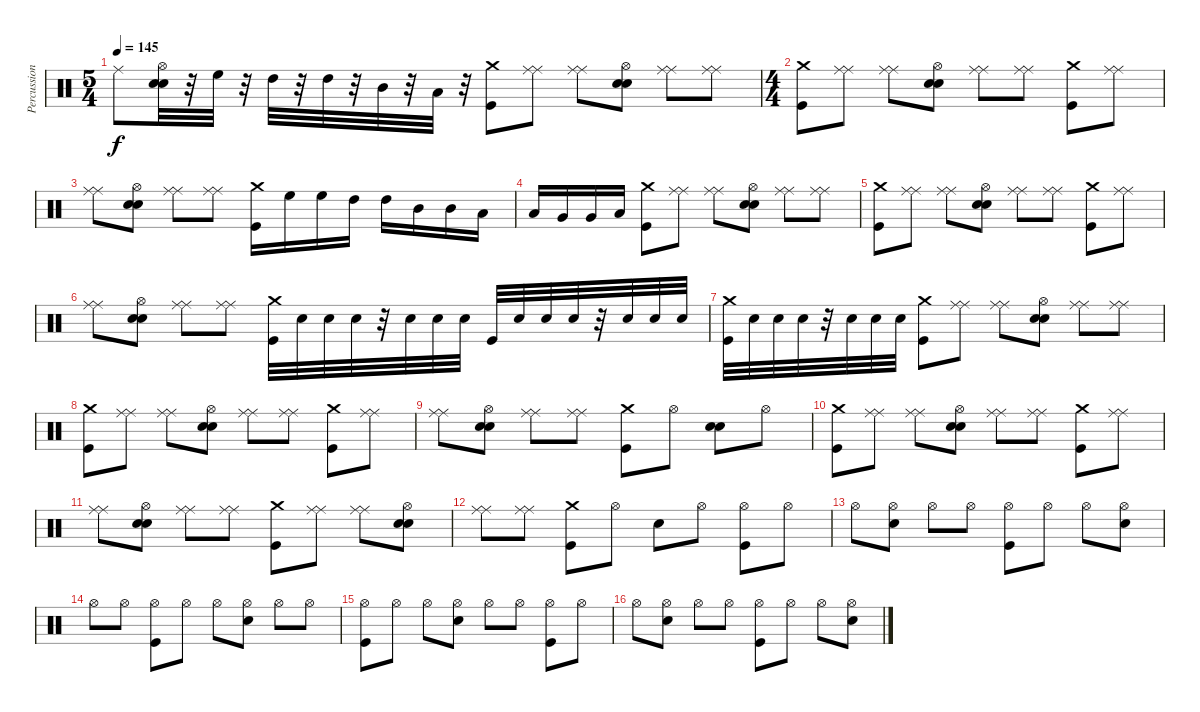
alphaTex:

\track ("Percussions" "Percussion") {instrument percussion}
\staff {score}
\articulation defaults
\ts (5 4)
\tempo 145
\clef neutral
\ks c "Ride (middle)".8{dy f}
("Hi-Hat (open)" "Electric Snare (hit)" "Electric Snare (hit)").32 r.32{volume 11} "High Floor Tom (hit)".32 r.32 "High Tom (hit)".32 r.32 "High Tom (hit)".32 r.32 "Mid Tom (hit)".32 r.32 "Low Tom (hit)".32 r.32 ("Crash medium (hit)" "Kick (hit)").8{volume 16} ("Ride (middle)" "Ride (middle)").8 ("Ride (middle)" "Ride (middle)").8 ("Hi-Hat (open)" "Electric Snare (hit)" "Electric Snare (hit)").8 ("Ride (middle)" "Ride (middle)").8 ("Ride (middle)" "Ride (middle)").8 |
\ts (4 4)
("Crash medium (hit)" "Kick (hit)").8 ("Ride (middle)" "Ride (middle)").8 ("Ride (middle)" "Ride (middle)").8 ("Hi-Hat (open)" "Electric Snare (hit)" "Electric Snare (hit)").8 ("Ride (middle)" "Ride (middle)").8 ("Ride (middle)" "Ride (middle)").8 ("Crash medium (hit)" "Kick (hit)").8 ("Ride (middle)" "Ride (middle)").8 |
("Ride (middle)" "Ride (middle)").8 ("Electric Snare (hit)" "Electric Snare (hit)" "Hi-Hat (open)").8 ("Ride (middle)" "Ride (middle)").8 ("Ride (middle)" "Ride (middle)").8 ("Crash medium (hit)" "Kick (hit)").16 "High Floor Tom (hit)".16{volume 11} "High Floor Tom (hit)".16 "High Tom (hit)".16 "High Tom (hit)".16 "Mid Tom (hit)".16 "Mid Tom (hit)".16 "Low Tom (hit)".16 |
"Low Tom (hit)".16 "Very Low Tom (hit)".16 "Very Low Tom (hit)".16 "Low Floor Tom (hit)".16 ("Crash medium (hit)" "Kick (hit)").8{volume 16} ("Ride (middle)" "Ride (middle)").8 ("Ride (middle)" "Ride (middle)").8 ("Hi-Hat (open)" "Electric Snare (hit)" "Electric Snare (hit)").8 ("Ride (middle)" "Ride (middle)").8 ("Ride (middle)" "Ride (middle)").8 |
("Crash medium (hit)" "Kick (hit)").8 ("Ride (middle)" "Ride (middle)").8 ("Ride (middle)" "Ride (middle)").8 ("Hi-Hat (open)" "Electric Snare (hit)" "Electric Snare (hit)").8 ("Ride (middle)" "Ride (middle)").8 ("Ride (middle)" "Ride (middle)").8 ("Crash medium (hit)" "Kick (hit)").8 ("Ride (middle)" "Ride (middle)").8 |
("Ride (middle)" "Ride (middle)").8 ("Hi-Hat (open)" "Electric Snare (hit)" "Electric Snare (hit)").8 ("Ride (middle)" "Ride (middle)").8 ("Ride (middle)" "Ride (middle)").8 ("Crash medium (hit)" "Kick (hit)").32 "Electric Snare (hit)".32{volume 10} "Electric Snare (hit)".32 "Electric Snare (hit)".32 r.32 "Electric Snare (hit)".32 "Electric Snare (hit)".32 "Electric Snare (hit)".32 "Kick (hit)".32{volume 16} "Electric Snare (hit)".32{volume 10} "Electric Snare (hit)".32 "Electric Snare (hit)".32 r.32 "Electric Snare (hit)".32 "Electric Snare (hit)".32 "Electric Snare (hit)".32 |
("Crash medium (hit)" "Kick (hit)").32{volume 16} "Electric Snare (hit)".32{volume 10} "Electric Snare (hit)".32 "Electric Snare (hit)".32 r.32 "Electric Snare (hit)".32 "Electric Snare (hit)".32 "Electric Snare (hit)".32 ("Crash medium (hit)" "Kick (hit)").8{volume 16} ("Ride (middle)" "Ride (middle)").8 ("Ride (middle)" "Ride (middle)").8 ("Hi-Hat (open)" "Electric Snare (hit)" "Electric Snare (hit)").8 ("Ride (middle)" "Ride (middle)").8 ("Ride (middle)" "Ride (middle)").8 |
("Crash medium (hit)" "Kick (hit)").8 ("Ride (middle)" "Ride (middle)").8 ("Ride (middle)" "Ride (middle)").8 ("Hi-Hat (open)" "Electric Snare (hit)" "Electric Snare (hit)").8 ("Ride (middle)" "Ride (middle)").8 ("Ride (middle)" "Ride (middle)").8 ("Crash medium (hit)" "Kick (hit)").8 ("Ride (middle)" "Ride (middle)").8 |
("Ride (middle)" "Ride (middle)").8 ("Hi-Hat (open)" "Electric Snare (hit)" "Electric Snare (hit)").8 ("Ride (middle)" "Ride (middle)").8 ("Ride (middle)" "Ride (middle)").8 ("Crash medium (hit)" "Kick (hit)").8 "Hi-Hat (open)".8 ("Electric Snare (hit)" "Electric Snare (hit)").8 "Hi-Hat (open)".8 |
("Crash medium (hit)" "Kick (hit)").8 ("Ride (middle)" "Ride (middle)").8 ("Ride (middle)" "Ride (middle)").8 ("Hi-Hat (open)" "Electric Snare (hit)" "Electric Snare (hit)").8 ("Ride (middle)" "Ride (middle)").8 ("Ride (middle)" "Ride (middle)").8 ("Crash medium (hit)" "Kick (hit)").8 ("Ride (middle)" "Ride (middle)").8 |
("Ride (middle)" "Ride (middle)").8 ("Hi-Hat (open)" "Electric Snare (hit)" "Electric Snare (hit)").8 ("Ride (middle)" "Ride (middle)").8 ("Ride (middle)" "Ride (middle)").8 ("Crash medium (hit)" "Kick (hit)").8 ("Ride (middle)" "Ride (middle)").8 ("Ride (middle)" "Ride (middle)").8 ("Hi-Hat (open)" "Electric Snare (hit)" "Electric Snare (hit)").8 |
("Ride (middle)" "Ride (middle)").8 ("Ride (middle)" "Ride (middle)").8 ("Crash medium (hit)" "Kick (hit)").8 "Hi-Hat (open)".8 "Electric Snare (hit)".8 "Hi-Hat (open)".8 ("Hi-Hat (open)" "Kick (hit)").8 "Hi-Hat (open)".8 |
"Hi-Hat (open)".8 ("Electric Snare (hit)" "Hi-Hat (open)").8 "Hi-Hat (open)".8 "Hi-Hat (open)".8 ("Hi-Hat (open)" "Kick (hit)").8 "Hi-Hat (open)".8 "Hi-Hat (open)".8 ("Electric Snare (hit)" "Hi-Hat (open)").8 |
"Hi-Hat (open)".8 "Hi-Hat (open)".8 ("Hi-Hat (open)" "Kick (hit)").8 "Hi-Hat (open)".8 "Hi-Hat (open)".8 ("Electric Snare (hit)" "Hi-Hat (open)").8 "Hi-Hat (open)".8 "Hi-Hat (open)".8 |
("Hi-Hat (open)" "Kick (hit)").8 "Hi-Hat (open)".8 "Hi-Hat (open)".8 ("Electric Snare (hit)" "Hi-Hat (open)").8 "Hi-Hat (open)".8 "Hi-Hat (open)".8 ("Hi-Hat (open)" "Kick (hit)").8 "Hi-Hat (open)".8 |
"Hi-Hat (open)".8 ("Electric Snare (hit)" "Hi-Hat (open)").8 "Hi-Hat (open)".8 "Hi-Hat (open)".8 ("Hi-Hat (open)" "Kick (hit)").8 "Hi-Hat (open)".8 "Hi-Hat (open)".8 ("Electric Snare (hit)" "Hi-Hat (open)").8
